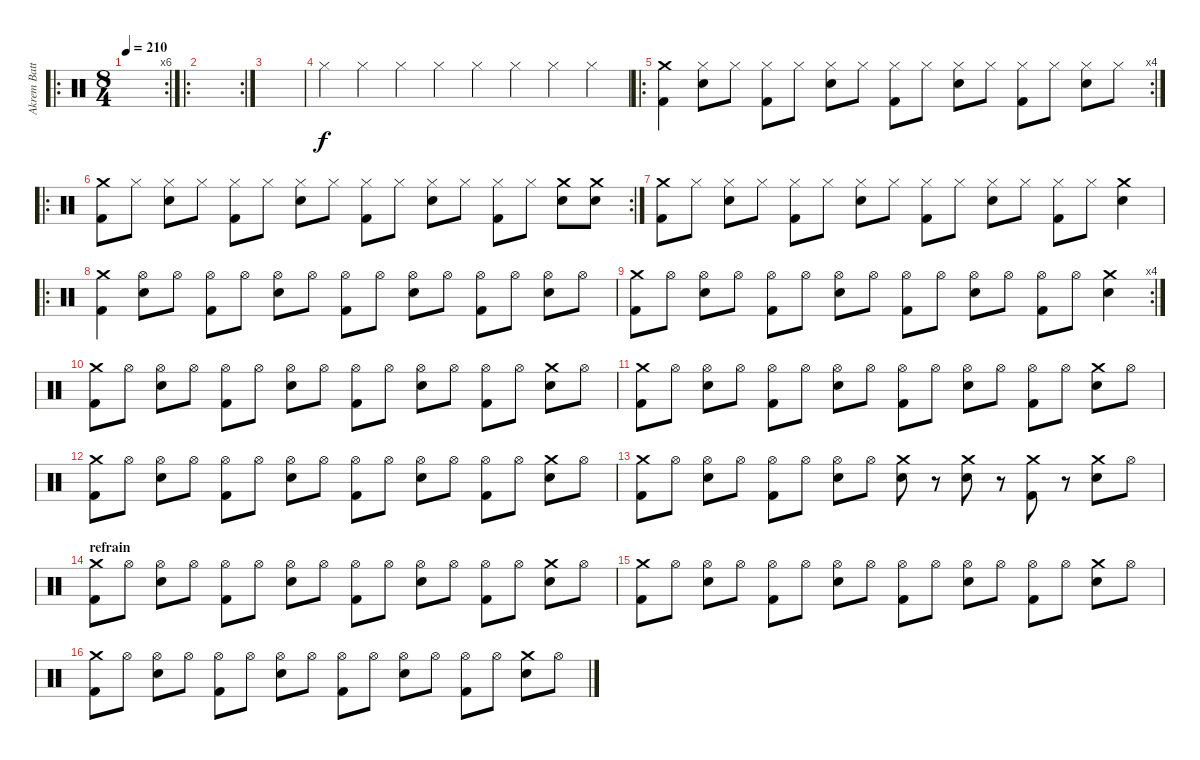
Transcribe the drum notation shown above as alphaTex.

\track ("Akrem Batterie" "Akrem Batt") {instrument percussion}
\staff {score}
\articulation defaults
\ro
\rc 6
\ts (8 4)
\tempo 210
\clef neutral
\ks c
|
\ro
\rc 2
|
|
"Hi-Hat (closed)".4 "Hi-Hat (closed)".4 "Hi-Hat (closed)".4 "Hi-Hat (closed)".4 "Hi-Hat (closed)".4 "Hi-Hat (closed)".4 "Hi-Hat (closed)".4 "Hi-Hat (closed)".4 |
\ro
\rc 4
("Crash medium (hit)" "Kick (hit) 2").4 ("Hi-Hat (closed)" "Electric Snare (hit)").8 "Hi-Hat (closed)".8 ("Hi-Hat (closed)" "Kick (hit) 2").8 "Hi-Hat (closed)".8 ("Hi-Hat (closed)" "Electric Snare (hit)").8 "Hi-Hat (closed)".8 ("Hi-Hat (closed)" "Kick (hit) 2").8 "Hi-Hat (closed)".8 ("Hi-Hat (closed)" "Electric Snare (hit)").8 "Hi-Hat (closed)".8 ("Hi-Hat (closed)" "Kick (hit) 2").8 "Hi-Hat (closed)".8 ("Hi-Hat (closed)" "Electric Snare (hit)").8 "Hi-Hat (closed)".8 |
\ro
\rc 2
("Crash medium (hit)" "Kick (hit) 2").8 "Hi-Hat (closed)".8 ("Hi-Hat (closed)" "Electric Snare (hit)").8 "Hi-Hat (closed)".8 ("Hi-Hat (closed)" "Kick (hit) 2").8 "Hi-Hat (closed)".8 ("Hi-Hat (closed)" "Electric Snare (hit)").8 "Hi-Hat (closed)".8 ("Hi-Hat (closed)" "Kick (hit) 2").8 "Hi-Hat (closed)".8 ("Hi-Hat (closed)" "Electric Snare (hit)").8 "Hi-Hat (closed)".8 ("Hi-Hat (closed)" "Kick (hit) 2").8 "Hi-Hat (closed)".8 ("Crash medium (hit)" "Electric Snare (hit)").8 ("Crash medium (hit)" "Electric Snare (hit)").8 |
("Crash medium (hit)" "Kick (hit) 2").8 "Hi-Hat (closed)".8 ("Hi-Hat (closed)" "Electric Snare (hit)").8 "Hi-Hat (closed)".8 ("Hi-Hat (closed)" "Kick (hit) 2").8 "Hi-Hat (closed)".8 ("Hi-Hat (closed)" "Electric Snare (hit)").8 "Hi-Hat (closed)".8 ("Hi-Hat (closed)" "Kick (hit) 2").8 "Hi-Hat (closed)".8 ("Hi-Hat (closed)" "Electric Snare (hit)").8 "Hi-Hat (closed)".8 ("Hi-Hat (closed)" "Kick (hit) 2").8 "Hi-Hat (closed)".8 ("Crash medium (hit)" "Electric Snare (hit)").4 |
\ro
("Crash medium (hit)" "Kick (hit) 2").4 ("Hi-Hat (open)" "Electric Snare (hit)").8 "Hi-Hat (open)".8 ("Hi-Hat (open)" "Kick (hit) 2").8 "Hi-Hat (open)".8 ("Hi-Hat (open)" "Electric Snare (hit)").8 "Hi-Hat (open)".8 ("Hi-Hat (open)" "Kick (hit) 2").8 "Hi-Hat (open)".8 ("Hi-Hat (open)" "Electric Snare (hit)").8 "Hi-Hat (open)".8 ("Hi-Hat (open)" "Kick (hit) 2").8 "Hi-Hat (open)".8 ("Hi-Hat (open)" "Electric Snare (hit)").8 "Hi-Hat (open)".8 |
\rc 4
("Crash medium (hit)" "Kick (hit) 2").8 "Hi-Hat (open)".8 ("Hi-Hat (open)" "Electric Snare (hit)").8 "Hi-Hat (open)".8 ("Hi-Hat (open)" "Kick (hit) 2").8 "Hi-Hat (open)".8 ("Hi-Hat (open)" "Electric Snare (hit)").8 "Hi-Hat (open)".8 ("Hi-Hat (open)" "Kick (hit) 2").8 "Hi-Hat (open)".8 ("Hi-Hat (open)" "Electric Snare (hit)").8 "Hi-Hat (open)".8 ("Hi-Hat (open)" "Kick (hit) 2").8 "Hi-Hat (open)".8 ("Crash medium (hit)" "Electric Snare (hit)").4 |
("Crash medium (hit)" "Kick (hit) 2").8 "Hi-Hat (open)".8 ("Hi-Hat (open)" "Electric Snare (hit)").8 "Hi-Hat (open)".8 ("Hi-Hat (open)" "Kick (hit) 2").8 "Hi-Hat (open)".8 ("Hi-Hat (open)" "Electric Snare (hit)").8 "Hi-Hat (open)".8 ("Hi-Hat (open)" "Kick (hit) 2").8 "Hi-Hat (open)".8 ("Hi-Hat (open)" "Electric Snare (hit)").8 "Hi-Hat (open)".8 ("Hi-Hat (open)" "Kick (hit) 2").8 "Hi-Hat (open)".8 ("Crash medium (hit)" "Electric Snare (hit)").8 "Hi-Hat (open)".8 |
("Crash medium (hit)" "Kick (hit) 2").8 "Hi-Hat (open)".8 ("Hi-Hat (open)" "Electric Snare (hit)").8 "Hi-Hat (open)".8 ("Hi-Hat (open)" "Kick (hit) 2").8 "Hi-Hat (open)".8 ("Hi-Hat (open)" "Electric Snare (hit)").8 "Hi-Hat (open)".8 ("Hi-Hat (open)" "Kick (hit) 2").8 "Hi-Hat (open)".8 ("Hi-Hat (open)" "Electric Snare (hit)").8 "Hi-Hat (open)".8 ("Hi-Hat (open)" "Kick (hit) 2").8 "Hi-Hat (open)".8 ("Crash medium (hit)" "Electric Snare (hit)").8 "Hi-Hat (open)".8 |
("Crash medium (hit)" "Kick (hit) 2").8 "Hi-Hat (open)".8 ("Hi-Hat (open)" "Electric Snare (hit)").8 "Hi-Hat (open)".8 ("Hi-Hat (open)" "Kick (hit) 2").8 "Hi-Hat (open)".8 ("Hi-Hat (open)" "Electric Snare (hit)").8 "Hi-Hat (open)".8 ("Hi-Hat (open)" "Kick (hit) 2").8 "Hi-Hat (open)".8 ("Hi-Hat (open)" "Electric Snare (hit)").8 "Hi-Hat (open)".8 ("Hi-Hat (open)" "Kick (hit) 2").8 "Hi-Hat (open)".8 ("Crash medium (hit)" "Electric Snare (hit)").8 "Hi-Hat (open)".8 |
("Crash medium (hit)" "Kick (hit) 2").8 "Hi-Hat (open)".8 ("Hi-Hat (open)" "Electric Snare (hit)").8 "Hi-Hat (open)".8 ("Hi-Hat (open)" "Kick (hit) 2").8 "Hi-Hat (open)".8 ("Hi-Hat (open)" "Electric Snare (hit)").8 "Hi-Hat (open)".8 ("Crash medium (hit)" "Electric Snare (hit)").8 r.8 ("Crash medium (hit)" "Electric Snare (hit)").8 r.8 ("Crash medium (hit)" "Kick (hit) 2").8 r.8 ("Crash medium (hit)" "Electric Snare (hit)").8 "Hi-Hat (open)".8 |
\section ("" "refrain")
("Crash medium (hit)" "Kick (hit) 2").8 "Hi-Hat (open)".8 ("Hi-Hat (open)" "Electric Snare (hit)").8 "Hi-Hat (open)".8 ("Hi-Hat (open)" "Kick (hit) 2").8 "Hi-Hat (open)".8 ("Hi-Hat (open)" "Electric Snare (hit)").8 "Hi-Hat (open)".8 ("Hi-Hat (open)" "Kick (hit) 2").8 "Hi-Hat (open)".8 ("Hi-Hat (open)" "Electric Snare (hit)").8 "Hi-Hat (open)".8 ("Hi-Hat (open)" "Kick (hit) 2").8 "Hi-Hat (open)".8 ("Crash medium (hit)" "Electric Snare (hit)").8 "Hi-Hat (open)".8 |
("Crash medium (hit)" "Kick (hit) 2").8 "Hi-Hat (open)".8 ("Hi-Hat (open)" "Electric Snare (hit)").8 "Hi-Hat (open)".8 ("Hi-Hat (open)" "Kick (hit) 2").8 "Hi-Hat (open)".8 ("Hi-Hat (open)" "Electric Snare (hit)").8 "Hi-Hat (open)".8 ("Hi-Hat (open)" "Kick (hit) 2").8 "Hi-Hat (open)".8 ("Hi-Hat (open)" "Electric Snare (hit)").8 "Hi-Hat (open)".8 ("Hi-Hat (open)" "Kick (hit) 2").8 "Hi-Hat (open)".8 ("Crash medium (hit)" "Electric Snare (hit)").8 "Hi-Hat (open)".8 |
("Crash medium (hit)" "Kick (hit) 2").8 "Hi-Hat (open)".8 ("Hi-Hat (open)" "Electric Snare (hit)").8 "Hi-Hat (open)".8 ("Hi-Hat (open)" "Kick (hit) 2").8 "Hi-Hat (open)".8 ("Hi-Hat (open)" "Electric Snare (hit)").8 "Hi-Hat (open)".8 ("Hi-Hat (open)" "Kick (hit) 2").8 "Hi-Hat (open)".8 ("Hi-Hat (open)" "Electric Snare (hit)").8 "Hi-Hat (open)".8 ("Hi-Hat (open)" "Kick (hit) 2").8 "Hi-Hat (open)".8 ("Crash medium (hit)" "Electric Snare (hit)").8 "Hi-Hat (open)".8
